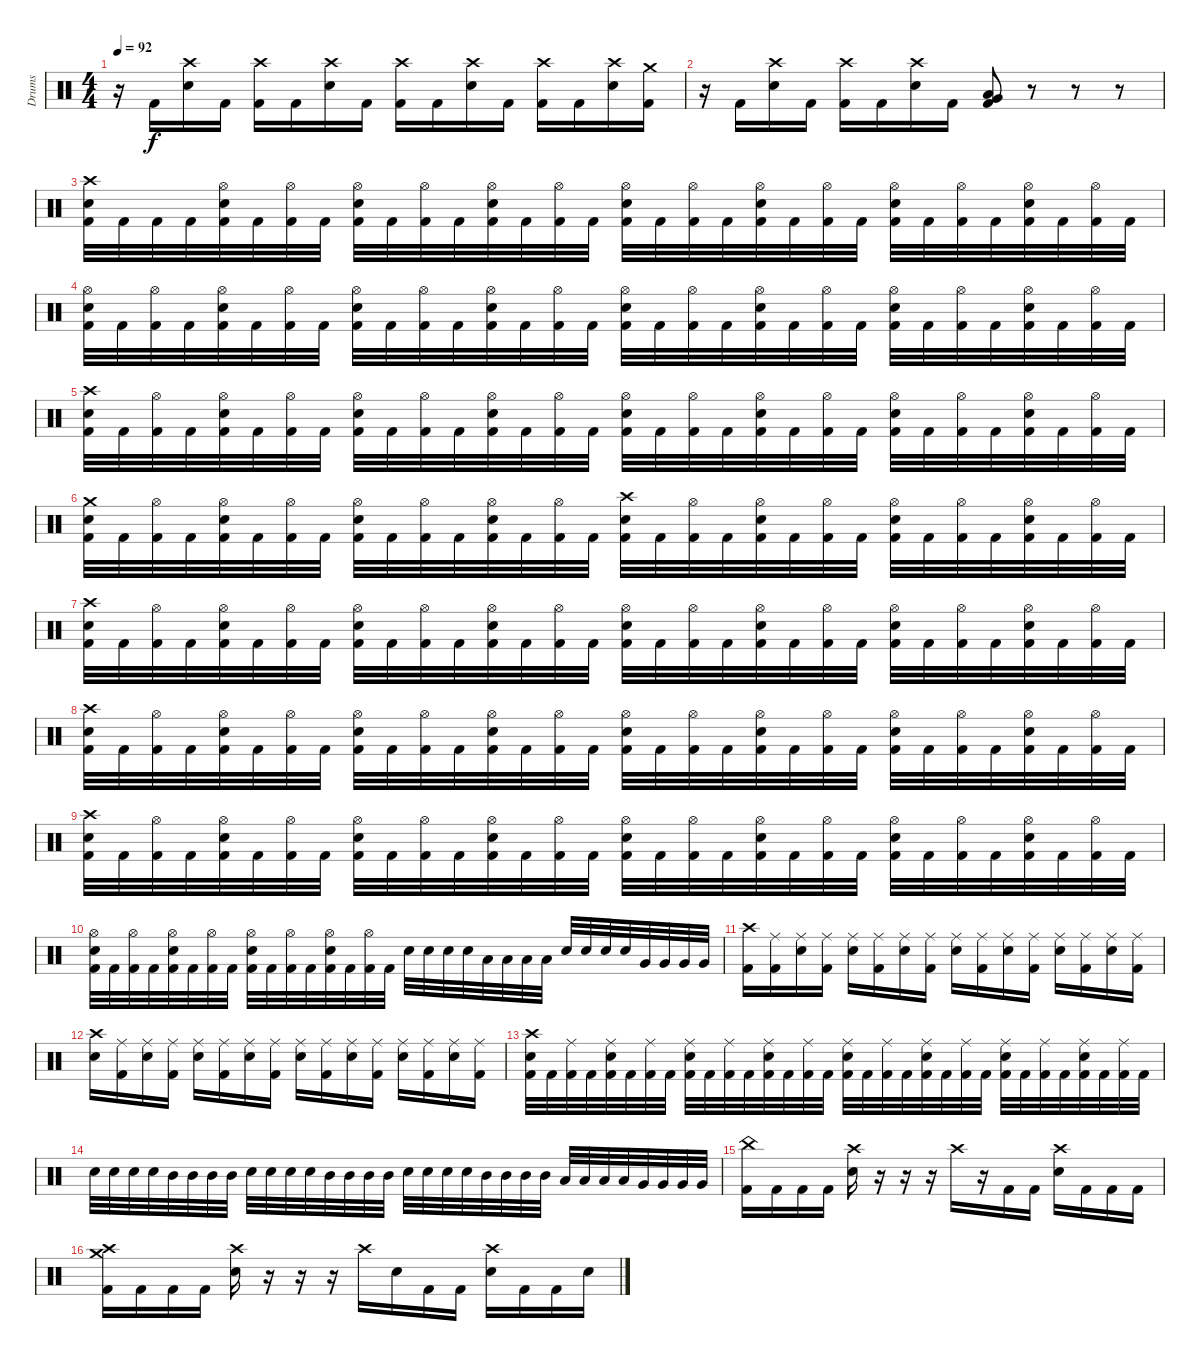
\track ("Drums" "Drums") {instrument percussion}
\staff {score}
\articulation defaults
\ts (4 4)
\tempo 92
\clef neutral
\ks c
r.16{dy f} "Kick (hit) 2".16 ("Crash high (hit)" "Electric Snare (hit)").16 "Kick (hit) 2".16 ("Crash high (hit)" "Kick (hit) 2").16 "Kick (hit) 2".16 ("Crash high (hit)" "Electric Snare (hit)").16 "Kick (hit) 2".16 ("Crash high (hit)" "Kick (hit) 2").16 "Kick (hit) 2".16 ("Crash high (hit)" "Electric Snare (hit)").16 "Kick (hit) 2".16 ("Crash high (hit)" "Kick (hit) 2").16 "Kick (hit) 2".16 ("Crash high (hit)" "Electric Snare (hit)").16 ("Crash medium (hit)" "Kick (hit) 2").16 |
r.16 "Kick (hit) 2".16 ("Crash high (hit)" "Electric Snare (hit)").16 "Kick (hit) 2".16 ("Crash high (hit)" "Kick (hit) 2").16 "Kick (hit) 2".16 ("Crash high (hit)" "Electric Snare (hit)").16 "Kick (hit) 2".16 ("Low Tom (hit)" "Very Low Tom (hit)" "Kick (hit) 2").8 r.8 r.8 r.8 |
("Crash high (hit)" "Electric Snare (hit)" "Kick (hit) 2").32 "Kick (hit) 2".32 "Kick (hit) 2".32 "Kick (hit) 2".32 ("Hi-Hat (open)" "Electric Snare (hit)" "Kick (hit) 2").32 "Kick (hit) 2".32 ("Hi-Hat (open)" "Kick (hit) 2").32 "Kick (hit) 2".32 ("Hi-Hat (open)" "Electric Snare (hit)" "Kick (hit) 2").32 "Kick (hit) 2".32 ("Hi-Hat (open)" "Kick (hit) 2").32 "Kick (hit) 2".32 ("Hi-Hat (open)" "Electric Snare (hit)" "Kick (hit) 2").32 "Kick (hit) 2".32 ("Hi-Hat (open)" "Kick (hit) 2").32 "Kick (hit) 2".32 ("Hi-Hat (open)" "Electric Snare (hit)" "Kick (hit) 2").32 "Kick (hit) 2".32 ("Hi-Hat (open)" "Kick (hit) 2").32 "Kick (hit) 2".32 ("Hi-Hat (open)" "Electric Snare (hit)" "Kick (hit) 2").32 "Kick (hit) 2".32 ("Hi-Hat (open)" "Kick (hit) 2").32 "Kick (hit) 2".32 ("Hi-Hat (open)" "Electric Snare (hit)" "Kick (hit) 2").32 "Kick (hit) 2".32 ("Hi-Hat (open)" "Kick (hit) 2").32 "Kick (hit) 2".32 ("Hi-Hat (open)" "Electric Snare (hit)" "Kick (hit) 2").32 "Kick (hit) 2".32 ("Hi-Hat (open)" "Kick (hit) 2").32 "Kick (hit) 2".32 |
("Hi-Hat (open)" "Electric Snare (hit)" "Kick (hit) 2").32 "Kick (hit) 2".32 ("Hi-Hat (open)" "Kick (hit) 2").32 "Kick (hit) 2".32 ("Hi-Hat (open)" "Electric Snare (hit)" "Kick (hit) 2").32 "Kick (hit) 2".32 ("Hi-Hat (open)" "Kick (hit) 2").32 "Kick (hit) 2".32 ("Hi-Hat (open)" "Electric Snare (hit)" "Kick (hit) 2").32 "Kick (hit) 2".32 ("Hi-Hat (open)" "Kick (hit) 2").32 "Kick (hit) 2".32 ("Hi-Hat (open)" "Electric Snare (hit)" "Kick (hit) 2").32 "Kick (hit) 2".32 ("Hi-Hat (open)" "Kick (hit) 2").32 "Kick (hit) 2".32 ("Hi-Hat (open)" "Electric Snare (hit)" "Kick (hit) 2").32 "Kick (hit) 2".32 ("Hi-Hat (open)" "Kick (hit) 2").32 "Kick (hit) 2".32 ("Hi-Hat (open)" "Electric Snare (hit)" "Kick (hit) 2").32 "Kick (hit) 2".32 ("Hi-Hat (open)" "Kick (hit) 2").32 "Kick (hit) 2".32 ("Hi-Hat (open)" "Electric Snare (hit)" "Kick (hit) 2").32 "Kick (hit) 2".32 ("Hi-Hat (open)" "Kick (hit) 2").32 "Kick (hit) 2".32 ("Hi-Hat (open)" "Electric Snare (hit)" "Kick (hit) 2").32 "Kick (hit) 2".32 ("Hi-Hat (open)" "Kick (hit) 2").32 "Kick (hit) 2".32 |
("Crash high (hit)" "Electric Snare (hit)" "Kick (hit) 2").32 "Kick (hit) 2".32 ("Hi-Hat (open)" "Kick (hit) 2").32 "Kick (hit) 2".32 ("Hi-Hat (open)" "Electric Snare (hit)" "Kick (hit) 2").32 "Kick (hit) 2".32 ("Hi-Hat (open)" "Kick (hit) 2").32 "Kick (hit) 2".32 ("Hi-Hat (open)" "Electric Snare (hit)" "Kick (hit) 2").32 "Kick (hit) 2".32 ("Hi-Hat (open)" "Kick (hit) 2").32 "Kick (hit) 2".32 ("Hi-Hat (open)" "Electric Snare (hit)" "Kick (hit) 2").32 "Kick (hit) 2".32 ("Hi-Hat (open)" "Kick (hit) 2").32 "Kick (hit) 2".32 ("Hi-Hat (open)" "Electric Snare (hit)" "Kick (hit) 2").32 "Kick (hit) 2".32 ("Hi-Hat (open)" "Kick (hit) 2").32 "Kick (hit) 2".32 ("Hi-Hat (open)" "Electric Snare (hit)" "Kick (hit) 2").32 "Kick (hit) 2".32 ("Hi-Hat (open)" "Kick (hit) 2").32 "Kick (hit) 2".32 ("Hi-Hat (open)" "Electric Snare (hit)" "Kick (hit) 2").32 "Kick (hit) 2".32 ("Hi-Hat (open)" "Kick (hit) 2").32 "Kick (hit) 2".32 ("Hi-Hat (open)" "Electric Snare (hit)" "Kick (hit) 2").32 "Kick (hit) 2".32 ("Hi-Hat (open)" "Kick (hit) 2").32 "Kick (hit) 2".32 |
("Crash medium (hit)" "Electric Snare (hit)" "Kick (hit) 2").32 "Kick (hit) 2".32 ("Hi-Hat (open)" "Kick (hit) 2").32 "Kick (hit) 2".32 ("Hi-Hat (open)" "Electric Snare (hit)" "Kick (hit) 2").32 "Kick (hit) 2".32 ("Hi-Hat (open)" "Kick (hit) 2").32 "Kick (hit) 2".32 ("Hi-Hat (open)" "Electric Snare (hit)" "Kick (hit) 2").32 "Kick (hit) 2".32 ("Hi-Hat (open)" "Kick (hit) 2").32 "Kick (hit) 2".32 ("Hi-Hat (open)" "Electric Snare (hit)" "Kick (hit) 2").32 "Kick (hit) 2".32 ("Hi-Hat (open)" "Kick (hit) 2").32 "Kick (hit) 2".32 ("Crash high (hit)" "Electric Snare (hit)" "Kick (hit) 2").32 "Kick (hit) 2".32 ("Hi-Hat (open)" "Kick (hit) 2").32 "Kick (hit) 2".32 ("Hi-Hat (open)" "Electric Snare (hit)" "Kick (hit) 2").32 "Kick (hit) 2".32 ("Hi-Hat (open)" "Kick (hit) 2").32 "Kick (hit) 2".32 ("Hi-Hat (open)" "Electric Snare (hit)" "Kick (hit) 2").32 "Kick (hit) 2".32 ("Hi-Hat (open)" "Kick (hit) 2").32 "Kick (hit) 2".32 ("Hi-Hat (open)" "Electric Snare (hit)" "Kick (hit) 2").32 "Kick (hit) 2".32 ("Hi-Hat (open)" "Kick (hit) 2").32 "Kick (hit) 2".32 |
("Crash high (hit)" "Electric Snare (hit)" "Kick (hit) 2").32 "Kick (hit) 2".32 ("Hi-Hat (open)" "Kick (hit) 2").32 "Kick (hit) 2".32 ("Hi-Hat (open)" "Electric Snare (hit)" "Kick (hit) 2").32 "Kick (hit) 2".32 ("Hi-Hat (open)" "Kick (hit) 2").32 "Kick (hit) 2".32 ("Hi-Hat (open)" "Electric Snare (hit)" "Kick (hit) 2").32 "Kick (hit) 2".32 ("Hi-Hat (open)" "Kick (hit) 2").32 "Kick (hit) 2".32 ("Hi-Hat (open)" "Electric Snare (hit)" "Kick (hit) 2").32 "Kick (hit) 2".32 ("Hi-Hat (open)" "Kick (hit) 2").32 "Kick (hit) 2".32 ("Hi-Hat (open)" "Electric Snare (hit)" "Kick (hit) 2").32 "Kick (hit) 2".32 ("Hi-Hat (open)" "Kick (hit) 2").32 "Kick (hit) 2".32 ("Hi-Hat (open)" "Electric Snare (hit)" "Kick (hit) 2").32 "Kick (hit) 2".32 ("Hi-Hat (open)" "Kick (hit) 2").32 "Kick (hit) 2".32 ("Hi-Hat (open)" "Electric Snare (hit)" "Kick (hit) 2").32 "Kick (hit) 2".32 ("Hi-Hat (open)" "Kick (hit) 2").32 "Kick (hit) 2".32 ("Hi-Hat (open)" "Electric Snare (hit)" "Kick (hit) 2").32 "Kick (hit) 2".32 ("Hi-Hat (open)" "Kick (hit) 2").32 "Kick (hit) 2".32 |
("Crash high (hit)" "Electric Snare (hit)" "Kick (hit) 2").32 "Kick (hit) 2".32 ("Hi-Hat (open)" "Kick (hit) 2").32 "Kick (hit) 2".32 ("Hi-Hat (open)" "Electric Snare (hit)" "Kick (hit) 2").32 "Kick (hit) 2".32 ("Hi-Hat (open)" "Kick (hit) 2").32 "Kick (hit) 2".32 ("Hi-Hat (open)" "Electric Snare (hit)" "Kick (hit) 2").32 "Kick (hit) 2".32 ("Hi-Hat (open)" "Kick (hit) 2").32 "Kick (hit) 2".32 ("Hi-Hat (open)" "Electric Snare (hit)" "Kick (hit) 2").32 "Kick (hit) 2".32 ("Hi-Hat (open)" "Kick (hit) 2").32 "Kick (hit) 2".32 ("Hi-Hat (open)" "Electric Snare (hit)" "Kick (hit) 2").32 "Kick (hit) 2".32 ("Hi-Hat (open)" "Kick (hit) 2").32 "Kick (hit) 2".32 ("Hi-Hat (open)" "Electric Snare (hit)" "Kick (hit) 2").32 "Kick (hit) 2".32 ("Hi-Hat (open)" "Kick (hit) 2").32 "Kick (hit) 2".32 ("Hi-Hat (open)" "Electric Snare (hit)" "Kick (hit) 2").32 "Kick (hit) 2".32 ("Hi-Hat (open)" "Kick (hit) 2").32 "Kick (hit) 2".32 ("Hi-Hat (open)" "Electric Snare (hit)" "Kick (hit) 2").32 "Kick (hit) 2".32 ("Hi-Hat (open)" "Kick (hit) 2").32 "Kick (hit) 2".32 |
("Crash high (hit)" "Electric Snare (hit)" "Kick (hit) 2").32 "Kick (hit) 2".32 ("Hi-Hat (open)" "Kick (hit) 2").32 "Kick (hit) 2".32 ("Hi-Hat (open)" "Electric Snare (hit)" "Kick (hit) 2").32 "Kick (hit) 2".32 ("Hi-Hat (open)" "Kick (hit) 2").32 "Kick (hit) 2".32 ("Hi-Hat (open)" "Electric Snare (hit)" "Kick (hit) 2").32 "Kick (hit) 2".32 ("Hi-Hat (open)" "Kick (hit) 2").32 "Kick (hit) 2".32 ("Hi-Hat (open)" "Electric Snare (hit)" "Kick (hit) 2").32 "Kick (hit) 2".32 ("Hi-Hat (open)" "Kick (hit) 2").32 "Kick (hit) 2".32 ("Hi-Hat (open)" "Electric Snare (hit)" "Kick (hit) 2").32 "Kick (hit) 2".32 ("Hi-Hat (open)" "Kick (hit) 2").32 "Kick (hit) 2".32 ("Hi-Hat (open)" "Electric Snare (hit)" "Kick (hit) 2").32 "Kick (hit) 2".32 ("Hi-Hat (open)" "Kick (hit) 2").32 "Kick (hit) 2".32 ("Hi-Hat (open)" "Electric Snare (hit)" "Kick (hit) 2").32 "Kick (hit) 2".32 ("Hi-Hat (open)" "Kick (hit) 2").32 "Kick (hit) 2".32 ("Hi-Hat (open)" "Electric Snare (hit)" "Kick (hit) 2").32 "Kick (hit) 2".32 ("Hi-Hat (open)" "Kick (hit) 2").32 "Kick (hit) 2".32 |
("Hi-Hat (open)" "Electric Snare (hit)" "Kick (hit) 2").32 "Kick (hit) 2".32 ("Hi-Hat (open)" "Kick (hit) 2").32 "Kick (hit) 2".32 ("Hi-Hat (open)" "Electric Snare (hit)" "Kick (hit) 2").32 "Kick (hit) 2".32 ("Hi-Hat (open)" "Kick (hit) 2").32 "Kick (hit) 2".32 ("Hi-Hat (open)" "Electric Snare (hit)" "Kick (hit) 2").32 "Kick (hit) 2".32 ("Hi-Hat (open)" "Kick (hit) 2").32 "Kick (hit) 2".32 ("Hi-Hat (open)" "Electric Snare (hit)" "Kick (hit) 2").32 "Kick (hit) 2".32 ("Hi-Hat (open)" "Kick (hit) 2").32 "Kick (hit) 2".32 "Electric Snare (hit)".32 "Electric Snare (hit)".32 "Electric Snare (hit)".32 "Electric Snare (hit)".32 "Low Tom (hit)".32 "Low Tom (hit)".32 "Low Tom (hit)".32 "Low Tom (hit)".32 "Electric Snare (hit)".32 "Electric Snare (hit)".32 "Electric Snare (hit)".32 "Electric Snare (hit)".32 "Very Low Tom (hit)".32 "Very Low Tom (hit)".32 "Very Low Tom (hit)".32 "Very Low Tom (hit)".32 |
("Crash high (hit)" "Kick (hit) 2").16 ("Ride (middle)" "Kick (hit) 2").16 ("Ride (middle)" "Electric Snare (hit)").16 ("Ride (middle)" "Kick (hit) 2").16 ("Ride (middle)" "Electric Snare (hit)").16 ("Ride (middle)" "Kick (hit) 2").16 ("Ride (middle)" "Electric Snare (hit)").16 ("Ride (middle)" "Kick (hit) 2").16 ("Ride (middle)" "Electric Snare (hit)").16 ("Ride (middle)" "Kick (hit) 2").16 ("Ride (middle)" "Electric Snare (hit)").16 ("Ride (middle)" "Kick (hit) 2").16 ("Ride (middle)" "Electric Snare (hit)").16 ("Ride (middle)" "Kick (hit) 2").16 ("Ride (middle)" "Electric Snare (hit)").16 ("Ride (middle)" "Kick (hit) 2").16 |
("Crash high (hit)" "Electric Snare (hit)").16 ("Ride (middle)" "Kick (hit) 2").16 ("Ride (middle)" "Electric Snare (hit)").16 ("Ride (middle)" "Kick (hit) 2").16 ("Ride (middle)" "Electric Snare (hit)").16 ("Ride (middle)" "Kick (hit) 2").16 ("Ride (middle)" "Electric Snare (hit)").16 ("Ride (middle)" "Kick (hit) 2").16 ("Ride (middle)" "Electric Snare (hit)").16 ("Ride (middle)" "Kick (hit) 2").16 ("Ride (middle)" "Electric Snare (hit)").16 ("Ride (middle)" "Kick (hit) 2").16 ("Ride (middle)" "Electric Snare (hit)").16 ("Ride (middle)" "Kick (hit) 2").16 ("Ride (middle)" "Electric Snare (hit)").16 ("Ride (middle)" "Kick (hit) 2").16 |
("Crash high (hit)" "Electric Snare (hit)" "Kick (hit) 2").32 "Kick (hit) 2".32 ("Ride (middle)" "Kick (hit) 2").32 "Kick (hit) 2".32 ("Ride (middle)" "Electric Snare (hit)" "Kick (hit) 2").32 "Kick (hit) 2".32 ("Ride (middle)" "Kick (hit) 2").32 "Kick (hit) 2".32 ("Ride (middle)" "Electric Snare (hit)" "Kick (hit) 2").32 "Kick (hit) 2".32 ("Ride (middle)" "Kick (hit) 2").32 "Kick (hit) 2".32 ("Ride (middle)" "Electric Snare (hit)" "Kick (hit) 2").32 "Kick (hit) 2".32 ("Ride (middle)" "Kick (hit) 2").32 "Kick (hit) 2".32 ("Ride (middle)" "Electric Snare (hit)" "Kick (hit) 2").32 "Kick (hit) 2".32 ("Ride (middle)" "Kick (hit) 2").32 "Kick (hit) 2".32 ("Ride (middle)" "Electric Snare (hit)" "Kick (hit) 2").32 "Kick (hit) 2".32 ("Ride (middle)" "Kick (hit) 2").32 "Kick (hit) 2".32 ("Ride (middle)" "Electric Snare (hit)" "Kick (hit) 2").32 "Kick (hit) 2".32 ("Ride (middle)" "Kick (hit) 2").32 "Kick (hit) 2".32 ("Ride (middle)" "Electric Snare (hit)" "Kick (hit) 2").32 "Kick (hit) 2".32 ("Ride (middle)" "Kick (hit) 2").32 "Kick (hit) 2".32 |
"Electric Snare (hit)".32 "Electric Snare (hit)".32 "Electric Snare (hit)".32 "Electric Snare (hit)".32 "Mid Tom (hit)".32 "Mid Tom (hit)".32 "Mid Tom (hit)".32 "Mid Tom (hit)".32 "Electric Snare (hit)".32 "Electric Snare (hit)".32 "Electric Snare (hit)".32 "Electric Snare (hit)".32 "Mid Tom (hit)".32 "Mid Tom (hit)".32 "Mid Tom (hit)".32 "Mid Tom (hit)".32 "Electric Snare (hit)".32 "Electric Snare (hit)".32 "Electric Snare (hit)".32 "Electric Snare (hit)".32 "Mid Tom (hit)".32 "Mid Tom (hit)".32 "Mid Tom (hit)".32 "Mid Tom (hit)".32 "Low Tom (hit)".32 "Low Tom (hit)".32 "Low Tom (hit)".32 "Low Tom (hit)".32 "Very Low Tom (hit)".32 "Very Low Tom (hit)".32 "Very Low Tom (hit)".32 "Very Low Tom (hit)".32 |
("China (hit)" "Kick (hit) 2").16 "Kick (hit) 2".16 "Kick (hit) 2".16 "Kick (hit) 2".16 ("Crash high (hit)" "Electric Snare (hit)").16 r.16 r.16 r.16 "Crash high (hit)".16 r.16 "Kick (hit) 2".16 "Kick (hit) 2".16 ("Crash high (hit)" "Electric Snare (hit)").16 "Kick (hit) 2".16 "Kick (hit) 2".16 "Kick (hit) 2".16 |
("Crash high (hit)" "Crash medium (hit)" "Kick (hit) 2").16 "Kick (hit) 2".16 "Kick (hit) 2".16 "Kick (hit) 2".16 ("Crash high (hit)" "Electric Snare (hit)").16 r.16 r.16 r.16 "Crash high (hit)".16 "Electric Snare (hit)".16 "Kick (hit) 2".16 "Kick (hit) 2".16 ("Crash high (hit)" "Electric Snare (hit)").16 "Kick (hit) 2".16 "Kick (hit) 2".16 "Electric Snare (hit)".16
